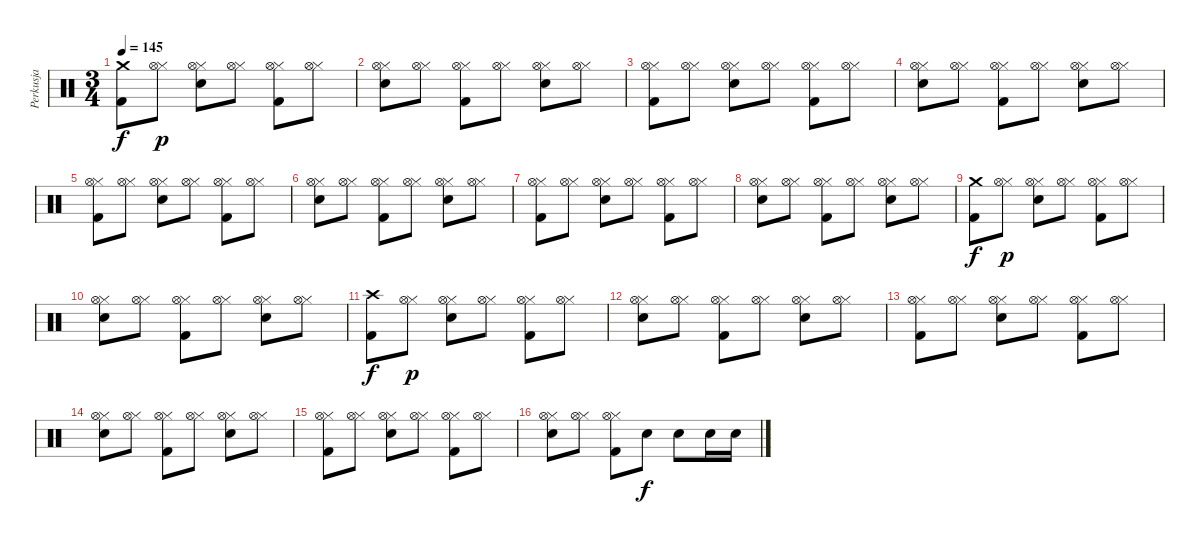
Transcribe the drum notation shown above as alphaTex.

\track ("Perkusja" "Perkusja") {instrument percussion}
\staff {score}
\articulation defaults
\ts (3 4)
\tempo 145
\clef neutral
\ks c
("Kick (hit) 2" "Crash medium (hit)").8{dy f} ("Hi-Hat (closed)" "Hi-Hat (open)").8{dy p} ("Electric Snare (hit)" "Hi-Hat (closed)" "Hi-Hat (open)").8 ("Hi-Hat (closed)" "Hi-Hat (open)").8 ("Kick (hit) 2" "Hi-Hat (closed)" "Hi-Hat (open)").8 ("Hi-Hat (closed)" "Hi-Hat (open)").8 |
("Electric Snare (hit)" "Hi-Hat (closed)" "Hi-Hat (open)").8 ("Hi-Hat (closed)" "Hi-Hat (open)").8 ("Kick (hit) 2" "Hi-Hat (closed)" "Hi-Hat (open)").8 ("Hi-Hat (closed)" "Hi-Hat (open)").8 ("Electric Snare (hit)" "Hi-Hat (closed)" "Hi-Hat (open)").8 ("Hi-Hat (closed)" "Hi-Hat (open)").8 |
("Kick (hit) 2" "Hi-Hat (closed)" "Hi-Hat (open)").8 ("Hi-Hat (closed)" "Hi-Hat (open)").8 ("Electric Snare (hit)" "Hi-Hat (closed)" "Hi-Hat (open)").8 ("Hi-Hat (closed)" "Hi-Hat (open)").8 ("Kick (hit) 2" "Hi-Hat (closed)" "Hi-Hat (open)").8 ("Hi-Hat (closed)" "Hi-Hat (open)").8 |
("Electric Snare (hit)" "Hi-Hat (closed)" "Hi-Hat (open)").8 ("Hi-Hat (closed)" "Hi-Hat (open)").8 ("Kick (hit) 2" "Hi-Hat (closed)" "Hi-Hat (open)").8 ("Hi-Hat (closed)" "Hi-Hat (open)").8 ("Electric Snare (hit)" "Hi-Hat (closed)" "Hi-Hat (open)").8 ("Hi-Hat (closed)" "Hi-Hat (open)").8 |
("Kick (hit) 2" "Hi-Hat (closed)" "Hi-Hat (open)").8 ("Hi-Hat (closed)" "Hi-Hat (open)").8 ("Electric Snare (hit)" "Hi-Hat (closed)" "Hi-Hat (open)").8 ("Hi-Hat (closed)" "Hi-Hat (open)").8 ("Kick (hit) 2" "Hi-Hat (closed)" "Hi-Hat (open)").8 ("Hi-Hat (closed)" "Hi-Hat (open)").8 |
("Electric Snare (hit)" "Hi-Hat (closed)" "Hi-Hat (open)").8 ("Hi-Hat (closed)" "Hi-Hat (open)").8 ("Kick (hit) 2" "Hi-Hat (closed)" "Hi-Hat (open)").8 ("Hi-Hat (closed)" "Hi-Hat (open)").8 ("Electric Snare (hit)" "Hi-Hat (closed)" "Hi-Hat (open)").8 ("Hi-Hat (closed)" "Hi-Hat (open)").8 |
("Kick (hit) 2" "Hi-Hat (closed)" "Hi-Hat (open)").8 ("Hi-Hat (closed)" "Hi-Hat (open)").8 ("Electric Snare (hit)" "Hi-Hat (closed)" "Hi-Hat (open)").8 ("Hi-Hat (closed)" "Hi-Hat (open)").8 ("Kick (hit) 2" "Hi-Hat (closed)" "Hi-Hat (open)").8 ("Hi-Hat (closed)" "Hi-Hat (open)").8 |
("Electric Snare (hit)" "Hi-Hat (closed)" "Hi-Hat (open)").8 ("Hi-Hat (closed)" "Hi-Hat (open)").8 ("Kick (hit) 2" "Hi-Hat (closed)" "Hi-Hat (open)").8 ("Hi-Hat (closed)" "Hi-Hat (open)").8 ("Electric Snare (hit)" "Hi-Hat (closed)" "Hi-Hat (open)").8 ("Hi-Hat (closed)" "Hi-Hat (open)").8 |
("Kick (hit) 2" "Crash medium (hit)").8{dy f} ("Hi-Hat (closed)" "Hi-Hat (open)").8{dy p} ("Electric Snare (hit)" "Hi-Hat (closed)" "Hi-Hat (open)").8 ("Hi-Hat (closed)" "Hi-Hat (open)").8 ("Kick (hit) 2" "Hi-Hat (closed)" "Hi-Hat (open)").8 ("Hi-Hat (closed)" "Hi-Hat (open)").8 |
("Electric Snare (hit)" "Hi-Hat (closed)" "Hi-Hat (open)").8 ("Hi-Hat (closed)" "Hi-Hat (open)").8 ("Kick (hit) 2" "Hi-Hat (closed)" "Hi-Hat (open)").8 ("Hi-Hat (closed)" "Hi-Hat (open)").8 ("Electric Snare (hit)" "Hi-Hat (closed)" "Hi-Hat (open)").8 ("Hi-Hat (closed)" "Hi-Hat (open)").8 |
("Kick (hit) 2" "Crash high (hit)").8{dy f} ("Hi-Hat (closed)" "Hi-Hat (open)").8{dy p} ("Electric Snare (hit)" "Hi-Hat (closed)" "Hi-Hat (open)").8 ("Hi-Hat (closed)" "Hi-Hat (open)").8 ("Kick (hit) 2" "Hi-Hat (closed)" "Hi-Hat (open)").8 ("Hi-Hat (closed)" "Hi-Hat (open)").8 |
("Electric Snare (hit)" "Hi-Hat (closed)" "Hi-Hat (open)").8 ("Hi-Hat (closed)" "Hi-Hat (open)").8 ("Kick (hit) 2" "Hi-Hat (closed)" "Hi-Hat (open)").8 ("Hi-Hat (closed)" "Hi-Hat (open)").8 ("Electric Snare (hit)" "Hi-Hat (closed)" "Hi-Hat (open)").8 ("Hi-Hat (closed)" "Hi-Hat (open)").8 |
("Kick (hit) 2" "Hi-Hat (closed)" "Hi-Hat (open)").8 ("Hi-Hat (closed)" "Hi-Hat (open)").8 ("Electric Snare (hit)" "Hi-Hat (closed)" "Hi-Hat (open)").8 ("Hi-Hat (closed)" "Hi-Hat (open)").8 ("Kick (hit) 2" "Hi-Hat (closed)" "Hi-Hat (open)").8 ("Hi-Hat (closed)" "Hi-Hat (open)").8 |
("Electric Snare (hit)" "Hi-Hat (closed)" "Hi-Hat (open)").8 ("Hi-Hat (closed)" "Hi-Hat (open)").8 ("Kick (hit) 2" "Hi-Hat (closed)" "Hi-Hat (open)").8 ("Hi-Hat (closed)" "Hi-Hat (open)").8 ("Electric Snare (hit)" "Hi-Hat (closed)" "Hi-Hat (open)").8 ("Hi-Hat (closed)" "Hi-Hat (open)").8 |
("Kick (hit) 2" "Hi-Hat (closed)" "Hi-Hat (open)").8 ("Hi-Hat (closed)" "Hi-Hat (open)").8 ("Electric Snare (hit)" "Hi-Hat (closed)" "Hi-Hat (open)").8 ("Hi-Hat (closed)" "Hi-Hat (open)").8 ("Kick (hit) 2" "Hi-Hat (closed)" "Hi-Hat (open)").8 ("Hi-Hat (closed)" "Hi-Hat (open)").8 |
("Electric Snare (hit)" "Hi-Hat (closed)" "Hi-Hat (open)").8 ("Hi-Hat (closed)" "Hi-Hat (open)").8 ("Kick (hit) 2" "Hi-Hat (closed)" "Hi-Hat (open)").8 "Electric Snare (hit)".8{dy f} "Electric Snare (hit)".8 "Electric Snare (hit)".16 "Electric Snare (hit)".16
